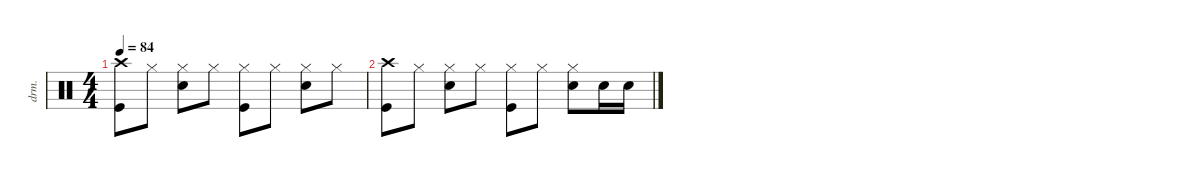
\defaultSystemsLayout 4
\hideDynamics
\bracketExtendMode nobrackets
\otherSystemsTrackNameOrientation horizontal
\track ("Drumkit" "drm.") {instrument percussion}
\staff {score}
\articulation defaults
\ts (4 4)
\tempo 84
\clef neutral
\ks aminor
("Kick (hit)" "Crash high (hit)").8{dy mf beam Down} "Hi-Hat (closed)".8{dy ff beam Down} ("Hi-Hat (closed)" "Snare (hit) 2").8{beam Down} "Hi-Hat (closed)".8{beam Down} ("Hi-Hat (closed)" "Kick (hit)").8{beam Down} "Hi-Hat (closed)".8{beam Down} ("Hi-Hat (closed)" "Snare (hit) 2").8{beam Down} "Hi-Hat (closed)".8{beam Down} |
("Kick (hit)" "Crash high (hit)").8{dy mf beam Down} "Hi-Hat (closed)".8{dy ff beam Down} ("Hi-Hat (closed)" "Snare (hit) 2").8{beam Down} "Hi-Hat (closed)".8{beam Down} ("Hi-Hat (closed)" "Kick (hit)").8{beam Down} "Hi-Hat (closed)".8{beam Down} ("Hi-Hat (closed)" "Snare (hit) 2").8{beam Down} "Snare (hit) 2".16{beam Down} "Snare (hit) 2".16{beam Down}
